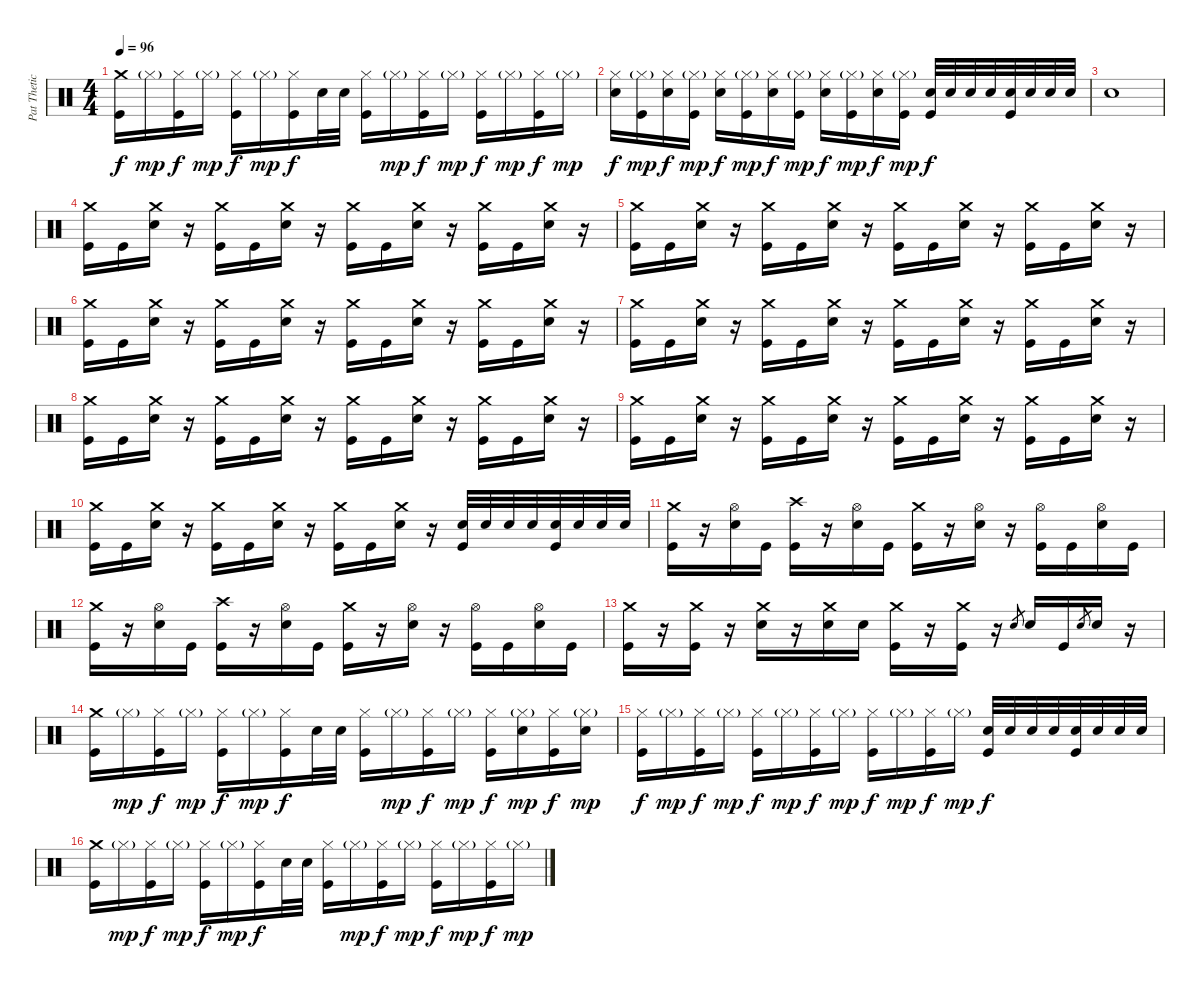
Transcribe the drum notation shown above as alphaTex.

\track ("Pat Thetic" "Pat Thetic") {instrument percussion}
\staff {score}
\articulation defaults
\ts (4 4)
\tempo 96
\clef neutral
\ks c
("Crash medium (hit)" "Kick (hit)").16{dy f} "Hi-Hat (closed)"{g}.16{dy mp} ("Hi-Hat (closed)" "Kick (hit)").16{dy f} "Hi-Hat (closed)"{g}.16{dy mp} ("Hi-Hat (closed)" "Kick (hit)").16{dy f} "Hi-Hat (closed)"{g}.16{dy mp} ("Hi-Hat (closed)" "Kick (hit)").16{dy f} "Electric Snare (hit)".32 "Electric Snare (hit)".32 ("Hi-Hat (closed)" "Kick (hit)").16 "Hi-Hat (closed)"{g}.16{dy mp} ("Hi-Hat (closed)" "Kick (hit)").16{dy f} "Hi-Hat (closed)"{g}.16{dy mp} ("Hi-Hat (closed)" "Kick (hit)").16{dy f} "Hi-Hat (closed)"{g}.16{dy mp} ("Hi-Hat (closed)" "Kick (hit)").16{dy f} "Hi-Hat (closed)"{g}.16{dy mp} |
("Hi-Hat (closed)" "Electric Snare (hit)").16{dy f} ("Hi-Hat (closed)"{g} "Kick (hit)").16{dy mp} ("Hi-Hat (closed)" "Electric Snare (hit)").16{dy f} ("Hi-Hat (closed)"{g} "Kick (hit)").16{dy mp} ("Hi-Hat (closed)" "Electric Snare (hit)").16{dy f} ("Hi-Hat (closed)"{g} "Kick (hit)").16{dy mp} ("Hi-Hat (closed)" "Electric Snare (hit)").16{dy f} ("Hi-Hat (closed)"{g} "Kick (hit)").16{dy mp} ("Hi-Hat (closed)" "Electric Snare (hit)").16{dy f} ("Hi-Hat (closed)"{g} "Kick (hit)").16{dy mp} ("Hi-Hat (closed)" "Electric Snare (hit)").16{dy f} ("Hi-Hat (closed)"{g} "Kick (hit)").16{dy mp} ("Electric Snare (hit)" "Kick (hit)").32{dy f} "Electric Snare (hit)".32 "Electric Snare (hit)".32 "Electric Snare (hit)".32 ("Electric Snare (hit)" "Kick (hit)").32 "Electric Snare (hit)".32 "Electric Snare (hit)".32 "Electric Snare (hit)".32 |
"Electric Snare (hit)".1 |
("Crash medium (hit)" "Kick (hit)").16 "Kick (hit)".16 ("Crash medium (hit)" "Electric Snare (hit)").16 r.16 ("Crash medium (hit)" "Kick (hit)").16 "Kick (hit)".16 ("Crash medium (hit)" "Electric Snare (hit)").16 r.16 ("Crash medium (hit)" "Kick (hit)").16 "Kick (hit)".16 ("Crash medium (hit)" "Electric Snare (hit)").16 r.16 ("Crash medium (hit)" "Kick (hit)").16 "Kick (hit)".16 ("Crash medium (hit)" "Electric Snare (hit)").16 r.16 |
("Crash medium (hit)" "Kick (hit)").16 "Kick (hit)".16 ("Crash medium (hit)" "Electric Snare (hit)").16 r.16 ("Crash medium (hit)" "Kick (hit)").16 "Kick (hit)".16 ("Crash medium (hit)" "Electric Snare (hit)").16 r.16 ("Crash medium (hit)" "Kick (hit)").16 "Kick (hit)".16 ("Crash medium (hit)" "Electric Snare (hit)").16 r.16 ("Crash medium (hit)" "Kick (hit)").16 "Kick (hit)".16 ("Crash medium (hit)" "Electric Snare (hit)").16 r.16 |
("Crash medium (hit)" "Kick (hit)").16 "Kick (hit)".16 ("Crash medium (hit)" "Electric Snare (hit)").16 r.16 ("Crash medium (hit)" "Kick (hit)").16 "Kick (hit)".16 ("Crash medium (hit)" "Electric Snare (hit)").16 r.16 ("Crash medium (hit)" "Kick (hit)").16 "Kick (hit)".16 ("Crash medium (hit)" "Electric Snare (hit)").16 r.16 ("Crash medium (hit)" "Kick (hit)").16 "Kick (hit)".16 ("Crash medium (hit)" "Electric Snare (hit)").16 r.16 |
("Crash medium (hit)" "Kick (hit)").16 "Kick (hit)".16 ("Crash medium (hit)" "Electric Snare (hit)").16 r.16 ("Crash medium (hit)" "Kick (hit)").16 "Kick (hit)".16 ("Crash medium (hit)" "Electric Snare (hit)").16 r.16 ("Crash medium (hit)" "Kick (hit)").16 "Kick (hit)".16 ("Crash medium (hit)" "Electric Snare (hit)").16 r.16 ("Crash medium (hit)" "Kick (hit)").16 "Kick (hit)".16 ("Crash medium (hit)" "Electric Snare (hit)").16 r.16 |
("Crash medium (hit)" "Kick (hit)").16 "Kick (hit)".16 ("Crash medium (hit)" "Electric Snare (hit)").16 r.16 ("Crash medium (hit)" "Kick (hit)").16 "Kick (hit)".16 ("Crash medium (hit)" "Electric Snare (hit)").16 r.16 ("Crash medium (hit)" "Kick (hit)").16 "Kick (hit)".16 ("Crash medium (hit)" "Electric Snare (hit)").16 r.16 ("Crash medium (hit)" "Kick (hit)").16 "Kick (hit)".16 ("Crash medium (hit)" "Electric Snare (hit)").16 r.16 |
("Crash medium (hit)" "Kick (hit)").16 "Kick (hit)".16 ("Crash medium (hit)" "Electric Snare (hit)").16 r.16 ("Crash medium (hit)" "Kick (hit)").16 "Kick (hit)".16 ("Crash medium (hit)" "Electric Snare (hit)").16 r.16 ("Crash medium (hit)" "Kick (hit)").16 "Kick (hit)".16 ("Crash medium (hit)" "Electric Snare (hit)").16 r.16 ("Crash medium (hit)" "Kick (hit)").16 "Kick (hit)".16 ("Crash medium (hit)" "Electric Snare (hit)").16 r.16 |
("Crash medium (hit)" "Kick (hit)").16 "Kick (hit)".16 ("Crash medium (hit)" "Electric Snare (hit)").16 r.16 ("Crash medium (hit)" "Kick (hit)").16 "Kick (hit)".16 ("Crash medium (hit)" "Electric Snare (hit)").16 r.16 ("Crash medium (hit)" "Kick (hit)").16 "Kick (hit)".16 ("Crash medium (hit)" "Electric Snare (hit)").16 r.16 ("Electric Snare (hit)" "Kick (hit)").32 "Electric Snare (hit)".32 "Electric Snare (hit)".32 "Electric Snare (hit)".32 ("Electric Snare (hit)" "Kick (hit)").32 "Electric Snare (hit)".32 "Electric Snare (hit)".32 "Electric Snare (hit)".32 |
("Crash medium (hit)" "Kick (hit)").16 r.16 ("Hi-Hat (open)" "Electric Snare (hit)").16 "Kick (hit)".16 ("Crash high (hit)" "Kick (hit)").16 r.16 ("Hi-Hat (open)" "Electric Snare (hit)").16 "Kick (hit)".16 ("Crash medium (hit)" "Kick (hit)").16 r.16 ("Hi-Hat (open)" "Electric Snare (hit)").16 r.16 ("Hi-Hat (open)" "Kick (hit)").16 "Kick (hit)".16 ("Hi-Hat (open)" "Electric Snare (hit)").16 "Kick (hit)".16 |
("Crash medium (hit)" "Kick (hit)").16 r.16 ("Hi-Hat (open)" "Electric Snare (hit)").16 "Kick (hit)".16 ("Crash high (hit)" "Kick (hit)").16 r.16 ("Hi-Hat (open)" "Electric Snare (hit)").16 "Kick (hit)".16 ("Crash medium (hit)" "Kick (hit)").16 r.16 ("Hi-Hat (open)" "Electric Snare (hit)").16 r.16 ("Hi-Hat (open)" "Kick (hit)").16 "Kick (hit)".16 ("Hi-Hat (open)" "Electric Snare (hit)").16 "Kick (hit)".16 |
("Crash medium (hit)" "Kick (hit)").16 r.16 ("Crash medium (hit)" "Kick (hit)").16 r.16 ("Crash medium (hit)" "Electric Snare (hit)").16 r.16 ("Crash medium (hit)" "Electric Snare (hit)").16 "Electric Snare (hit)".16 ("Crash medium (hit)" "Kick (hit)").16 r.16 ("Crash medium (hit)" "Kick (hit)").16 r.16 "Electric Snare (hit)".8{gr} "Electric Snare (hit)".16 "Kick (hit)".16 "Electric Snare (hit)".8{gr} "Electric Snare (hit)".16 r.16 |
("Crash medium (hit)" "Kick (hit)").16 "Hi-Hat (closed)"{g}.16{dy mp} ("Hi-Hat (closed)" "Kick (hit)").16{dy f} "Hi-Hat (closed)"{g}.16{dy mp} ("Hi-Hat (closed)" "Kick (hit)").16{dy f} "Hi-Hat (closed)"{g}.16{dy mp} ("Hi-Hat (closed)" "Kick (hit)").16{dy f} "Electric Snare (hit)".32 "Electric Snare (hit)".32 ("Hi-Hat (closed)" "Kick (hit)").16 "Hi-Hat (closed)"{g}.16{dy mp} ("Hi-Hat (closed)" "Kick (hit)").16{dy f} "Hi-Hat (closed)"{g}.16{dy mp} ("Hi-Hat (closed)" "Kick (hit)").16{dy f} ("Hi-Hat (closed)"{g} "Electric Snare (hit)").16{dy mp} ("Hi-Hat (closed)" "Kick (hit)").16{dy f} ("Hi-Hat (closed)"{g} "Electric Snare (hit)").16{dy mp} |
("Hi-Hat (closed)" "Kick (hit)").16{dy f} "Hi-Hat (closed)"{g}.16{dy mp} ("Hi-Hat (closed)" "Kick (hit)").16{dy f} "Hi-Hat (closed)"{g}.16{dy mp} ("Hi-Hat (closed)" "Kick (hit)").16{dy f} "Hi-Hat (closed)"{g}.16{dy mp} ("Hi-Hat (closed)" "Kick (hit)").16{dy f} "Hi-Hat (closed)"{g}.16{dy mp} ("Hi-Hat (closed)" "Kick (hit)").16{dy f} "Hi-Hat (closed)"{g}.16{dy mp} ("Hi-Hat (closed)" "Kick (hit)").16{dy f} "Hi-Hat (closed)"{g}.16{dy mp} ("Electric Snare (hit)" "Kick (hit)").32{dy f} "Electric Snare (hit)".32 "Electric Snare (hit)".32 "Electric Snare (hit)".32 ("Electric Snare (hit)" "Kick (hit)").32 "Electric Snare (hit)".32 "Electric Snare (hit)".32 "Electric Snare (hit)".32 |
("Crash medium (hit)" "Kick (hit)").16 "Hi-Hat (closed)"{g}.16{dy mp} ("Hi-Hat (closed)" "Kick (hit)").16{dy f} "Hi-Hat (closed)"{g}.16{dy mp} ("Hi-Hat (closed)" "Kick (hit)").16{dy f} "Hi-Hat (closed)"{g}.16{dy mp} ("Hi-Hat (closed)" "Kick (hit)").16{dy f} "Electric Snare (hit)".32 "Electric Snare (hit)".32 ("Hi-Hat (closed)" "Kick (hit)").16 "Hi-Hat (closed)"{g}.16{dy mp} ("Hi-Hat (closed)" "Kick (hit)").16{dy f} "Hi-Hat (closed)"{g}.16{dy mp} ("Hi-Hat (closed)" "Kick (hit)").16{dy f} "Hi-Hat (closed)"{g}.16{dy mp} ("Hi-Hat (closed)" "Kick (hit)").16{dy f} "Hi-Hat (closed)"{g}.16{dy mp}
